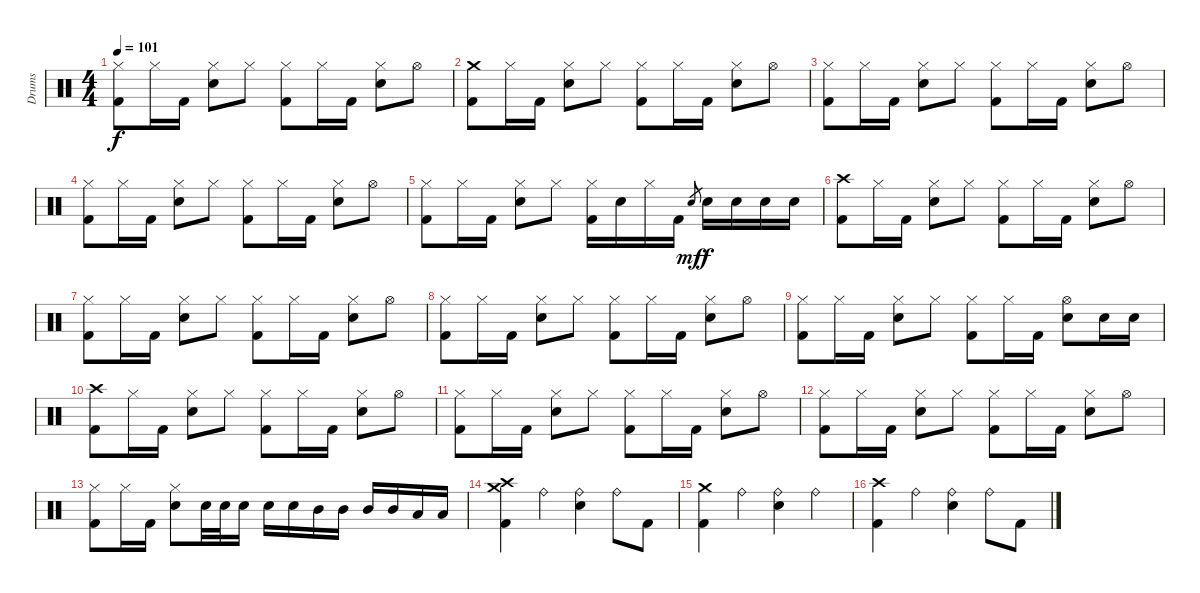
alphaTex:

\track ("Drums" "Drums") {instrument percussion}
\staff {score}
\articulation defaults
\ts (4 4)
\tempo 101
\clef neutral
\ks c
("Hi-Hat (closed)" "Kick (hit) 2").8{dy f} "Hi-Hat (closed)".16 "Kick (hit) 2".16 ("Hi-Hat (closed)" "Snare (hit) 2").8 "Hi-Hat (closed)".8 ("Hi-Hat (closed)" "Kick (hit) 2").8 "Hi-Hat (closed)".16 "Kick (hit) 2".16 ("Hi-Hat (closed)" "Snare (hit) 2").8 "Hi-Hat (open)".8 |
("Crash medium (hit)" "Kick (hit) 2").8 "Hi-Hat (closed)".16 "Kick (hit) 2".16 ("Hi-Hat (closed)" "Snare (hit) 2").8 "Hi-Hat (closed)".8 ("Hi-Hat (closed)" "Kick (hit) 2").8 "Hi-Hat (closed)".16 "Kick (hit) 2".16 ("Hi-Hat (closed)" "Snare (hit) 2").8 "Hi-Hat (open)".8 |
("Hi-Hat (closed)" "Kick (hit) 2").8 "Hi-Hat (closed)".16 "Kick (hit) 2".16 ("Hi-Hat (closed)" "Snare (hit) 2").8 "Hi-Hat (closed)".8 ("Hi-Hat (closed)" "Kick (hit) 2").8 "Hi-Hat (closed)".16 "Kick (hit) 2".16 ("Hi-Hat (closed)" "Snare (hit) 2").8 "Hi-Hat (open)".8 |
("Hi-Hat (closed)" "Kick (hit) 2").8 "Hi-Hat (closed)".16 "Kick (hit) 2".16 ("Hi-Hat (closed)" "Snare (hit) 2").8 "Hi-Hat (closed)".8 ("Hi-Hat (closed)" "Kick (hit) 2").8 "Hi-Hat (closed)".16 "Kick (hit) 2".16 ("Hi-Hat (closed)" "Snare (hit) 2").8 "Hi-Hat (open)".8 |
("Hi-Hat (closed)" "Kick (hit) 2").8 "Hi-Hat (closed)".16 "Kick (hit) 2".16 ("Hi-Hat (closed)" "Snare (hit) 2").8 "Hi-Hat (closed)".8 ("Hi-Hat (closed)" "Kick (hit) 2").16 "Snare (hit) 2".16 "Hi-Hat (closed)".16 "Kick (hit) 2".16 "Snare (hit) 2".8{gr dy mf} "Snare (hit) 2".16{dy f} "Snare (hit) 2".16 "Snare (hit) 2".16 "Snare (hit) 2".16 |
("Crash high (hit)" "Kick (hit) 2").8 "Hi-Hat (closed)".16 "Kick (hit) 2".16 ("Hi-Hat (closed)" "Snare (hit) 2").8 "Hi-Hat (closed)".8 ("Hi-Hat (closed)" "Kick (hit) 2").8 "Hi-Hat (closed)".16 "Kick (hit) 2".16 ("Hi-Hat (closed)" "Snare (hit) 2").8 "Hi-Hat (open)".8 |
("Hi-Hat (closed)" "Kick (hit) 2").8 "Hi-Hat (closed)".16 "Kick (hit) 2".16 ("Hi-Hat (closed)" "Snare (hit) 2").8 "Hi-Hat (closed)".8 ("Hi-Hat (closed)" "Kick (hit) 2").8 "Hi-Hat (closed)".16 "Kick (hit) 2".16 ("Hi-Hat (closed)" "Snare (hit) 2").8 "Hi-Hat (open)".8 |
("Hi-Hat (closed)" "Kick (hit) 2").8 "Hi-Hat (closed)".16 "Kick (hit) 2".16 ("Hi-Hat (closed)" "Snare (hit) 2").8 "Hi-Hat (closed)".8 ("Hi-Hat (closed)" "Kick (hit) 2").8 "Hi-Hat (closed)".16 "Kick (hit) 2".16 ("Hi-Hat (closed)" "Snare (hit) 2").8 "Hi-Hat (open)".8 |
("Hi-Hat (closed)" "Kick (hit) 2").8 "Hi-Hat (closed)".16 "Kick (hit) 2".16 ("Hi-Hat (closed)" "Snare (hit) 2").8 "Hi-Hat (closed)".8 ("Hi-Hat (closed)" "Kick (hit) 2").8 "Hi-Hat (closed)".16 "Kick (hit) 2".16 ("Hi-Hat (open)" "Snare (hit) 2").8 "Snare (hit) 2".16 "Snare (hit) 2".16 |
("Crash high (hit)" "Kick (hit) 2").8 "Hi-Hat (closed)".16 "Kick (hit) 2".16 ("Hi-Hat (closed)" "Snare (hit) 2").8 "Hi-Hat (closed)".8 ("Hi-Hat (closed)" "Kick (hit) 2").8 "Hi-Hat (closed)".16 "Kick (hit) 2".16 ("Hi-Hat (closed)" "Snare (hit) 2").8 "Hi-Hat (open)".8 |
("Hi-Hat (closed)" "Kick (hit) 2").8 "Hi-Hat (closed)".16 "Kick (hit) 2".16 ("Hi-Hat (closed)" "Snare (hit) 2").8 "Hi-Hat (closed)".8 ("Hi-Hat (closed)" "Kick (hit) 2").8 "Hi-Hat (closed)".16 "Kick (hit) 2".16 ("Hi-Hat (closed)" "Snare (hit) 2").8 "Hi-Hat (open)".8 |
("Hi-Hat (closed)" "Kick (hit) 2").8 "Hi-Hat (closed)".16 "Kick (hit) 2".16 ("Hi-Hat (closed)" "Snare (hit) 2").8 "Hi-Hat (closed)".8 ("Hi-Hat (closed)" "Kick (hit) 2").8 "Hi-Hat (closed)".16 "Kick (hit) 2".16 ("Hi-Hat (closed)" "Snare (hit) 2").8 "Hi-Hat (open)".8 |
("Hi-Hat (closed)" "Kick (hit) 2").8 "Hi-Hat (closed)".16 "Kick (hit) 2".16 ("Hi-Hat (closed)" "Snare (hit) 2").8 "Snare (hit) 2".32 "Snare (hit) 2".32 "Snare (hit) 2".16 "Snare (hit) 2".16 "Snare (hit) 2".16 "Mid Tom (hit)".16 "Mid Tom (hit)".16 "Mid Tom (hit)".16 "Mid Tom (hit)".16 "Low Tom (hit)".16 "Low Tom (hit)".16 |
("Crash high (hit)" "Crash medium (hit)" "Kick (hit) 2").4 "Ride (bell)".4 ("Ride (bell)" "Snare (hit) 2").4 "Ride (bell)".8 "Kick (hit) 2".8 |
("Crash medium (hit)" "Kick (hit) 2").4 "Ride (bell)".4 ("Ride (bell)" "Snare (hit) 2").4 "Ride (bell)".4 |
("Crash high (hit)" "Kick (hit) 2").4 "Ride (bell)".4 ("Ride (bell)" "Snare (hit) 2").4 "Ride (bell)".8 "Kick (hit) 2".8
